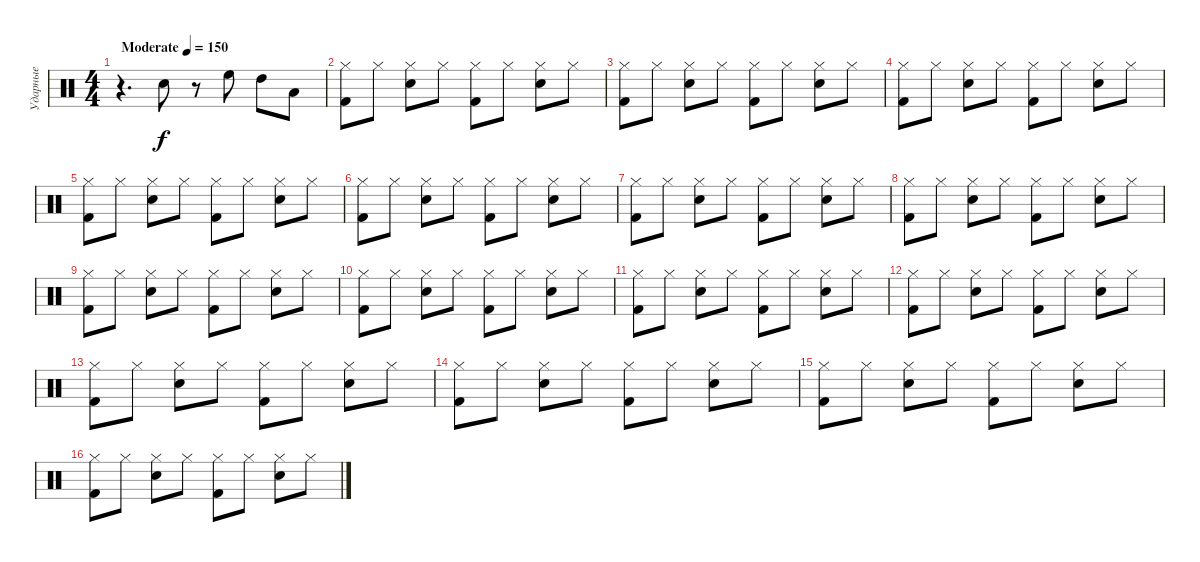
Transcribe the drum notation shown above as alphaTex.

\track ("Ударные" "Ударные") {instrument percussion}
\staff {score}
\articulation defaults
\ts (4 4)
\tempo (150 "Moderate")
\clef neutral
\ks c
r.4{d dy f} "Snare (hit) 2".8 r.8 "High Floor Tom (hit)".8 "High Tom (hit)".8 "Low Tom (hit)".8 |
("Hi-Hat (closed)" "Kick (hit) 2").8 "Hi-Hat (closed)".8 ("Hi-Hat (closed)" "Snare (hit) 2").8 "Hi-Hat (closed)".8 ("Hi-Hat (closed)" "Kick (hit) 2").8 "Hi-Hat (closed)".8 ("Hi-Hat (closed)" "Snare (hit) 2").8 "Hi-Hat (closed)".8 |
("Hi-Hat (closed)" "Kick (hit) 2").8 "Hi-Hat (closed)".8 ("Hi-Hat (closed)" "Snare (hit) 2").8 "Hi-Hat (closed)".8 ("Hi-Hat (closed)" "Kick (hit) 2").8 "Hi-Hat (closed)".8 ("Hi-Hat (closed)" "Snare (hit) 2").8 "Hi-Hat (closed)".8 |
("Hi-Hat (closed)" "Kick (hit) 2").8 "Hi-Hat (closed)".8 ("Hi-Hat (closed)" "Snare (hit) 2").8 "Hi-Hat (closed)".8 ("Hi-Hat (closed)" "Kick (hit) 2").8 "Hi-Hat (closed)".8 ("Hi-Hat (closed)" "Snare (hit) 2").8 "Hi-Hat (closed)".8 |
("Hi-Hat (closed)" "Kick (hit) 2").8 "Hi-Hat (closed)".8 ("Hi-Hat (closed)" "Snare (hit) 2").8 "Hi-Hat (closed)".8 ("Hi-Hat (closed)" "Kick (hit) 2").8 "Hi-Hat (closed)".8 ("Hi-Hat (closed)" "Snare (hit) 2").8 "Hi-Hat (closed)".8 |
("Hi-Hat (closed)" "Kick (hit) 2").8 "Hi-Hat (closed)".8 ("Hi-Hat (closed)" "Snare (hit) 2").8 "Hi-Hat (closed)".8 ("Hi-Hat (closed)" "Kick (hit) 2").8 "Hi-Hat (closed)".8 ("Hi-Hat (closed)" "Snare (hit) 2").8 "Hi-Hat (closed)".8 |
("Hi-Hat (closed)" "Kick (hit) 2").8 "Hi-Hat (closed)".8 ("Hi-Hat (closed)" "Snare (hit) 2").8 "Hi-Hat (closed)".8 ("Hi-Hat (closed)" "Kick (hit) 2").8 "Hi-Hat (closed)".8 ("Hi-Hat (closed)" "Snare (hit) 2").8 "Hi-Hat (closed)".8 |
("Hi-Hat (closed)" "Kick (hit) 2").8 "Hi-Hat (closed)".8 ("Hi-Hat (closed)" "Snare (hit) 2").8 "Hi-Hat (closed)".8 ("Hi-Hat (closed)" "Kick (hit) 2").8 "Hi-Hat (closed)".8 ("Hi-Hat (closed)" "Snare (hit) 2").8 "Hi-Hat (closed)".8 |
("Hi-Hat (closed)" "Kick (hit) 2").8 "Hi-Hat (closed)".8 ("Hi-Hat (closed)" "Snare (hit) 2").8 "Hi-Hat (closed)".8 ("Hi-Hat (closed)" "Kick (hit) 2").8 "Hi-Hat (closed)".8 ("Hi-Hat (closed)" "Snare (hit) 2").8 "Hi-Hat (closed)".8 |
("Hi-Hat (closed)" "Kick (hit) 2").8 "Hi-Hat (closed)".8 ("Hi-Hat (closed)" "Snare (hit) 2").8 "Hi-Hat (closed)".8 ("Hi-Hat (closed)" "Kick (hit) 2").8 "Hi-Hat (closed)".8 ("Hi-Hat (closed)" "Snare (hit) 2").8 "Hi-Hat (closed)".8 |
("Hi-Hat (closed)" "Kick (hit) 2").8 "Hi-Hat (closed)".8 ("Hi-Hat (closed)" "Snare (hit) 2").8 "Hi-Hat (closed)".8 ("Hi-Hat (closed)" "Kick (hit) 2").8 "Hi-Hat (closed)".8 ("Hi-Hat (closed)" "Snare (hit) 2").8 "Hi-Hat (closed)".8 |
("Hi-Hat (closed)" "Kick (hit) 2").8 "Hi-Hat (closed)".8 ("Hi-Hat (closed)" "Snare (hit) 2").8 "Hi-Hat (closed)".8 ("Hi-Hat (closed)" "Kick (hit) 2").8 "Hi-Hat (closed)".8 ("Hi-Hat (closed)" "Snare (hit) 2").8 "Hi-Hat (closed)".8 |
("Hi-Hat (closed)" "Kick (hit) 2").8 "Hi-Hat (closed)".8 ("Hi-Hat (closed)" "Snare (hit) 2").8 "Hi-Hat (closed)".8 ("Hi-Hat (closed)" "Kick (hit) 2").8 "Hi-Hat (closed)".8 ("Hi-Hat (closed)" "Snare (hit) 2").8 "Hi-Hat (closed)".8 |
("Hi-Hat (closed)" "Kick (hit) 2").8 "Hi-Hat (closed)".8 ("Hi-Hat (closed)" "Snare (hit) 2").8 "Hi-Hat (closed)".8 ("Hi-Hat (closed)" "Kick (hit) 2").8 "Hi-Hat (closed)".8 ("Hi-Hat (closed)" "Snare (hit) 2").8 "Hi-Hat (closed)".8 |
("Hi-Hat (closed)" "Kick (hit) 2").8 "Hi-Hat (closed)".8 ("Hi-Hat (closed)" "Snare (hit) 2").8 "Hi-Hat (closed)".8 ("Hi-Hat (closed)" "Kick (hit) 2").8 "Hi-Hat (closed)".8 ("Hi-Hat (closed)" "Snare (hit) 2").8 "Hi-Hat (closed)".8 |
("Hi-Hat (closed)" "Kick (hit) 2").8 "Hi-Hat (closed)".8 ("Hi-Hat (closed)" "Snare (hit) 2").8 "Hi-Hat (closed)".8 ("Hi-Hat (closed)" "Kick (hit) 2").8 "Hi-Hat (closed)".8 ("Hi-Hat (closed)" "Snare (hit) 2").8 "Hi-Hat (closed)".8
